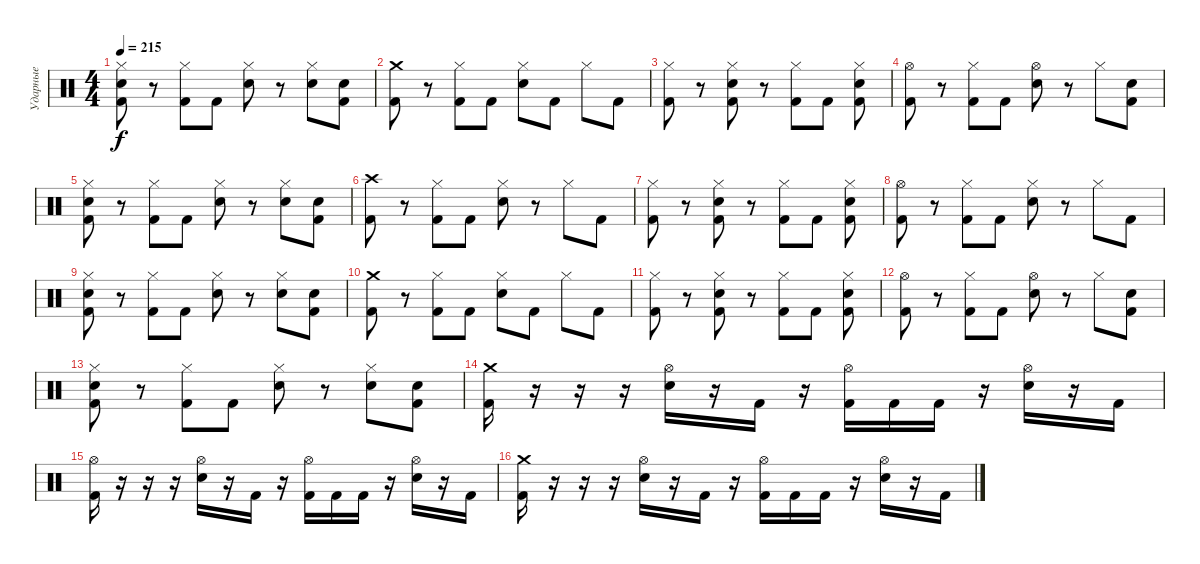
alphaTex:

\track ("Ударные" "Ударные") {instrument percussion}
\staff {score}
\articulation defaults
\ts (4 4)
\tempo 215
\clef neutral
\ks c
("Hi-Hat (closed)" "Snare (hit) 2" "Kick (hit) 2").8{dy f} r.8 ("Hi-Hat (closed)" "Kick (hit) 2").8 "Kick (hit) 2".8 ("Hi-Hat (closed)" "Snare (hit) 2").8 r.8 ("Hi-Hat (closed)" "Snare (hit) 2").8 ("Snare (hit) 2" "Kick (hit) 2").8 |
("Crash medium (hit)" "Kick (hit) 2").8 r.8 ("Hi-Hat (closed)" "Kick (hit) 2").8 "Kick (hit) 2".8 ("Hi-Hat (closed)" "Snare (hit) 2").8 "Kick (hit) 2".8 "Hi-Hat (closed)".8 "Kick (hit) 2".8 |
("Hi-Hat (closed)" "Kick (hit) 2").8 r.8 ("Hi-Hat (closed)" "Snare (hit) 2" "Kick (hit) 2").8 r.8 ("Hi-Hat (closed)" "Kick (hit) 2").8 "Kick (hit) 2".8 ("Hi-Hat (closed)" "Snare (hit) 2" "Kick (hit) 2").8 |
("Hi-Hat (open)" "Kick (hit) 2").8 r.8 ("Hi-Hat (closed)" "Kick (hit) 2").8 "Kick (hit) 2".8 ("Hi-Hat (open)" "Snare (hit) 2").8 r.8 "Hi-Hat (closed)".8 ("Snare (hit) 2" "Kick (hit) 2").8 |
("Hi-Hat (closed)" "Snare (hit) 2" "Kick (hit) 2").8 r.8 ("Hi-Hat (closed)" "Kick (hit) 2").8 "Kick (hit) 2".8 ("Hi-Hat (closed)" "Snare (hit) 2").8 r.8 ("Hi-Hat (closed)" "Snare (hit) 2").8 ("Snare (hit) 2" "Kick (hit) 2").8 |
("Crash high (hit)" "Kick (hit) 2").8 r.8 ("Hi-Hat (closed)" "Kick (hit) 2").8 "Kick (hit) 2".8 ("Hi-Hat (closed)" "Snare (hit) 2").8 r.8 "Hi-Hat (closed)".8 "Kick (hit) 2".8 |
("Hi-Hat (closed)" "Kick (hit) 2").8 r.8 ("Hi-Hat (closed)" "Snare (hit) 2" "Kick (hit) 2").8 r.8 ("Hi-Hat (closed)" "Kick (hit) 2").8 "Kick (hit) 2".8 ("Hi-Hat (closed)" "Snare (hit) 2" "Kick (hit) 2").8 |
("Hi-Hat (open)" "Kick (hit) 2").8 r.8 ("Hi-Hat (closed)" "Kick (hit) 2").8 "Kick (hit) 2".8 ("Hi-Hat (closed)" "Snare (hit) 2").8 r.8 "Hi-Hat (closed)".8 "Kick (hit) 2".8 |
("Hi-Hat (closed)" "Snare (hit) 2" "Kick (hit) 2").8 r.8 ("Hi-Hat (closed)" "Kick (hit) 2").8 "Kick (hit) 2".8 ("Hi-Hat (closed)" "Snare (hit) 2").8 r.8 ("Hi-Hat (closed)" "Snare (hit) 2").8 ("Snare (hit) 2" "Kick (hit) 2").8 |
("Crash medium (hit)" "Kick (hit) 2").8 r.8 ("Hi-Hat (closed)" "Kick (hit) 2").8 "Kick (hit) 2".8 ("Hi-Hat (closed)" "Snare (hit) 2").8 "Kick (hit) 2".8 "Hi-Hat (closed)".8 "Kick (hit) 2".8 |
("Hi-Hat (closed)" "Kick (hit) 2").8 r.8 ("Hi-Hat (closed)" "Snare (hit) 2" "Kick (hit) 2").8 r.8 ("Hi-Hat (closed)" "Kick (hit) 2").8 "Kick (hit) 2".8 ("Hi-Hat (closed)" "Snare (hit) 2" "Kick (hit) 2").8 |
("Hi-Hat (open)" "Kick (hit) 2").8 r.8 ("Hi-Hat (closed)" "Kick (hit) 2").8 "Kick (hit) 2".8 ("Hi-Hat (open)" "Snare (hit) 2").8 r.8 "Hi-Hat (closed)".8 ("Snare (hit) 2" "Kick (hit) 2").8 |
("Hi-Hat (closed)" "Snare (hit) 2" "Kick (hit) 2").8 r.8 ("Hi-Hat (closed)" "Kick (hit) 2").8 "Kick (hit) 2".8 ("Hi-Hat (closed)" "Snare (hit) 2").8 r.8 ("Hi-Hat (closed)" "Snare (hit) 2").8 ("Snare (hit) 2" "Kick (hit) 2").8 |
("Crash medium (hit)" "Kick (hit) 2").16 r.16 r.16 r.16 ("Hi-Hat (open)" "Snare (hit) 2").16 r.16 "Kick (hit) 2".16 r.16 ("Hi-Hat (open)" "Kick (hit) 2").16 "Kick (hit) 2".16 "Kick (hit) 2".16 r.16 ("Hi-Hat (open)" "Snare (hit) 2").16 r.16 "Kick (hit) 2".16 |
("Hi-Hat (open)" "Kick (hit) 2").16 r.16 r.16 r.16 ("Hi-Hat (open)" "Snare (hit) 2").16 r.16 "Kick (hit) 2".16 r.16 ("Hi-Hat (open)" "Kick (hit) 2").16 "Kick (hit) 2".16 "Kick (hit) 2".16 r.16 ("Hi-Hat (open)" "Snare (hit) 2").16 r.16 "Kick (hit) 2".16 |
("Crash medium (hit)" "Kick (hit) 2").16 r.16 r.16 r.16 ("Hi-Hat (open)" "Snare (hit) 2").16 r.16 "Kick (hit) 2".16 r.16 ("Hi-Hat (open)" "Kick (hit) 2").16 "Kick (hit) 2".16 "Kick (hit) 2".16 r.16 ("Hi-Hat (open)" "Snare (hit) 2").16 r.16 "Kick (hit) 2".16
